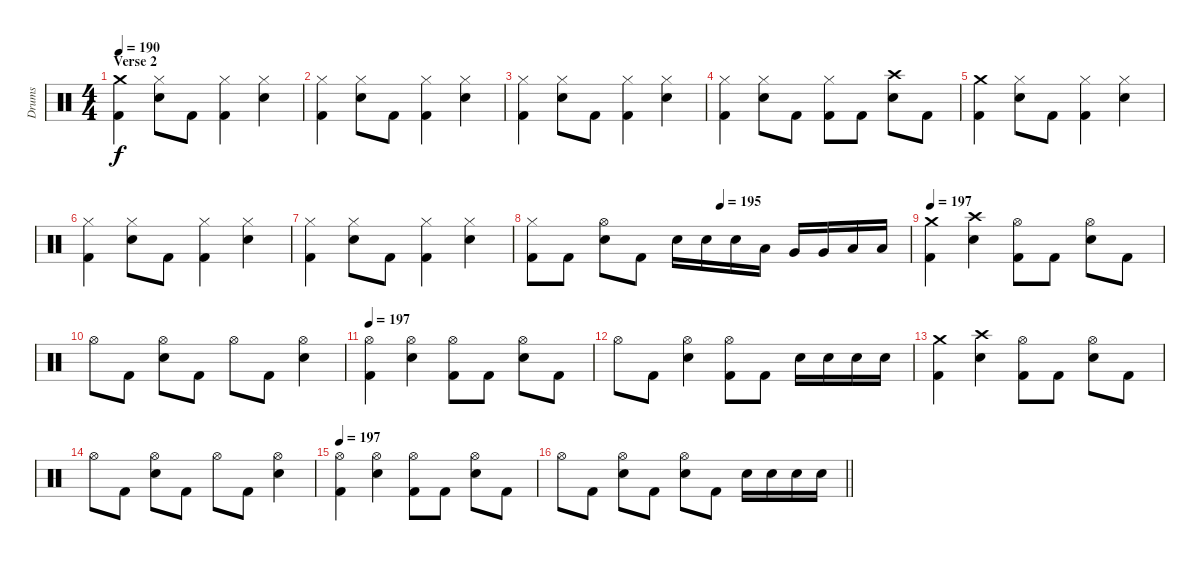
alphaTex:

\track ("Drums" "Drums") {instrument percussion}
\staff {score}
\articulation defaults
\ts (4 4)
\section ("" "Verse 2")
\tempo 190
\clef neutral
\ks c
("Crash medium (hit)" "Kick (hit) 2").4{dy f} ("Hi-Hat (closed)" "Electric Snare (hit)").8 "Kick (hit) 2".8 ("Hi-Hat (closed)" "Kick (hit) 2").4 ("Hi-Hat (closed)" "Electric Snare (hit)").4 |
("Hi-Hat (closed)" "Kick (hit) 2").4 ("Hi-Hat (closed)" "Electric Snare (hit)").8 "Kick (hit) 2".8 ("Hi-Hat (closed)" "Kick (hit) 2").4 ("Hi-Hat (closed)" "Electric Snare (hit)").4 |
("Hi-Hat (closed)" "Kick (hit) 2").4 ("Hi-Hat (closed)" "Electric Snare (hit)").8 "Kick (hit) 2".8 ("Hi-Hat (closed)" "Kick (hit) 2").4 ("Hi-Hat (closed)" "Electric Snare (hit)").4 |
("Hi-Hat (closed)" "Kick (hit) 2").4 ("Hi-Hat (closed)" "Electric Snare (hit)").8 "Kick (hit) 2".8 ("Hi-Hat (closed)" "Kick (hit) 2").8 "Kick (hit) 2".8 ("Crash high (hit)" "Electric Snare (hit)").8 "Kick (hit) 2".8 |
("Crash medium (hit)" "Kick (hit) 2").4 ("Hi-Hat (closed)" "Electric Snare (hit)").8 "Kick (hit) 2".8 ("Hi-Hat (closed)" "Kick (hit) 2").4 ("Hi-Hat (closed)" "Electric Snare (hit)").4 |
("Hi-Hat (closed)" "Kick (hit) 2").4 ("Hi-Hat (closed)" "Electric Snare (hit)").8 "Kick (hit) 2".8 ("Hi-Hat (closed)" "Kick (hit) 2").4 ("Hi-Hat (closed)" "Electric Snare (hit)").4 |
("Hi-Hat (closed)" "Kick (hit) 2").4 ("Hi-Hat (closed)" "Electric Snare (hit)").8 "Kick (hit) 2".8 ("Hi-Hat (closed)" "Kick (hit) 2").4 ("Hi-Hat (closed)" "Electric Snare (hit)").4 |
\tempo (195 0.5)
("Hi-Hat (closed)" "Kick (hit) 2").8 "Kick (hit) 2".8 ("Hi-Hat (open)" "Electric Snare (hit)").8 "Kick (hit) 2".8 "Electric Snare (hit)".16 "Electric Snare (hit)".16 "Electric Snare (hit)".16 "Low Tom (hit)".16 "Very Low Tom (hit)".16 "Very Low Tom (hit)".16 "Low Floor Tom (hit)".16 "Low Floor Tom (hit)".16 |
\tempo 197
("Crash medium (hit)" "Kick (hit) 2").4 ("Crash high (hit)" "Electric Snare (hit)").4 ("Hi-Hat (open)" "Kick (hit) 2").8 "Kick (hit) 2".8 ("Hi-Hat (open)" "Electric Snare (hit)").8 "Kick (hit) 2".8 |
"Hi-Hat (open)".8 "Kick (hit) 2".8 ("Hi-Hat (open)" "Electric Snare (hit)").8 "Kick (hit) 2".8 "Hi-Hat (open)".8 "Kick (hit) 2".8 ("Hi-Hat (open)" "Electric Snare (hit)").4 |
\tempo 197
("Hi-Hat (open)" "Kick (hit) 2").4 ("Hi-Hat (open)" "Electric Snare (hit)").4 ("Hi-Hat (open)" "Kick (hit) 2").8 "Kick (hit) 2".8 ("Hi-Hat (open)" "Electric Snare (hit)").8 "Kick (hit) 2".8 |
"Hi-Hat (open)".8 "Kick (hit) 2".8 ("Hi-Hat (open)" "Electric Snare (hit)").4 ("Hi-Hat (open)" "Kick (hit) 2").8 "Kick (hit) 2".8 "Electric Snare (hit)".16 "Electric Snare (hit)".16 "Electric Snare (hit)".16 "Electric Snare (hit)".16 |
("Crash medium (hit)" "Kick (hit) 2").4 ("Crash high (hit)" "Electric Snare (hit)").4 ("Hi-Hat (open)" "Kick (hit) 2").8 "Kick (hit) 2".8 ("Hi-Hat (open)" "Electric Snare (hit)").8 "Kick (hit) 2".8 |
"Hi-Hat (open)".8 "Kick (hit) 2".8 ("Hi-Hat (open)" "Electric Snare (hit)").8 "Kick (hit) 2".8 "Hi-Hat (open)".8 "Kick (hit) 2".8 ("Hi-Hat (open)" "Electric Snare (hit)").4 |
\tempo 197
("Hi-Hat (open)" "Kick (hit) 2").4 ("Hi-Hat (open)" "Electric Snare (hit)").4 ("Hi-Hat (open)" "Kick (hit) 2").8 "Kick (hit) 2".8 ("Hi-Hat (open)" "Electric Snare (hit)").8 "Kick (hit) 2".8 |
\barLineRight lightlight "Hi-Hat (open)".8 "Kick (hit) 2".8
("Hi-Hat (open)" "Electric Snare (hit)").8 "Kick (hit) 2".8 ("Hi-Hat (open)" "Electric Snare (hit)").8 "Kick (hit) 2".8 "Electric Snare (hit)".16 "Electric Snare (hit)".16 "Electric Snare (hit)".16 "Electric Snare (hit)".16
